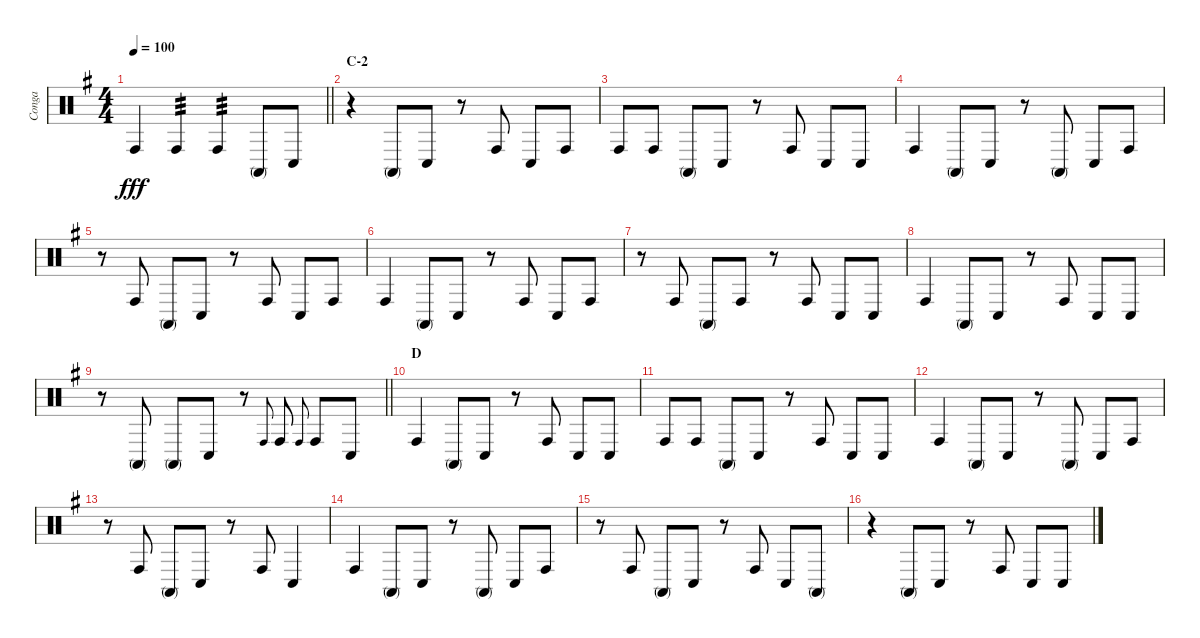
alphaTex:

\track ("Conga" "Conga") {instrument percussion}
\staff {score}
\articulation defaults
\ts (4 4)
\tempo 100
\clef neutral
\barLineRight lightlight
\ks g "Conga high (hit)".4{dy fff} "Conga high (hit)".4{tp 3} "Conga high (hit)".4{tp 3} "Conga high (mute)".8 "Conga low (hit)".8
|
\section ("" "C-2")
r.4 "Conga high (mute)".8 "Conga low (hit)".8 r.8 "Conga high (hit)".8 "Conga low (hit)".8 "Conga high (hit)".8 |
"Conga high (hit)".8 "Conga high (hit)".8 "Conga high (mute)".8 "Conga low (hit)".8 r.8 "Conga high (hit)".8 "Conga low (hit)".8 "Conga low (hit)".8 |
"Conga high (hit)".4 "Conga high (mute)".8 "Conga low (hit)".8 r.8 "Conga high (mute)".8 "Conga low (hit)".8 "Conga high (hit)".8 |
r.8 "Conga high (hit)".8 "Conga high (mute)".8 "Conga low (hit)".8 r.8 "Conga high (hit)".8 "Conga low (hit)".8 "Conga high (hit)".8 |
"Conga high (hit)".4 "Conga high (mute)".8 "Conga low (hit)".8 r.8 "Conga high (hit)".8 "Conga low (hit)".8 "Conga high (hit)".8 |
r.8 "Conga high (hit)".8 "Conga high (mute)".8 "Conga high (hit)".8 r.8 "Conga high (hit)".8 "Conga low (hit)".8 "Conga low (hit)".8 |
"Conga high (hit)".4 "Conga high (mute)".8 "Conga low (hit)".8 r.8 "Conga high (hit)".8 "Conga low (hit)".8 "Conga low (hit)".8 |
\barLineRight lightlight
r.8 "Conga high (mute)".8 "Conga high (mute)".8 "Conga low (hit)".8 r.8 "Conga high (hit)".8{gr onbeat} "Conga high (hit)".8 "Conga high (hit)".8{gr onbeat} "Conga high (hit)".8 "Conga low (hit)".8 |
\section ("" "D")
"Conga high (hit)".4 "Conga high (mute)".8 "Conga low (hit)".8 r.8 "Conga high (hit)".8 "Conga low (hit)".8 "Conga low (hit)".8 |
"Conga high (hit)".8 "Conga high (hit)".8 "Conga high (mute)".8 "Conga low (hit)".8 r.8 "Conga high (hit)".8 "Conga low (hit)".8 "Conga low (hit)".8 |
"Conga high (hit)".4 "Conga high (mute)".8 "Conga low (hit)".8 r.8 "Conga high (mute)".8 "Conga low (hit)".8 "Conga high (hit)".8 |
r.8 "Conga high (hit)".8 "Conga high (mute)".8 "Conga low (hit)".8 r.8 "Conga high (hit)".8 "Conga low (hit)".4 |
"Conga high (hit)".4 "Conga high (mute)".8 "Conga low (hit)".8 r.8 "Conga high (mute)".8 "Conga low (hit)".8 "Conga high (hit)".8 |
r.8 "Conga high (hit)".8 "Conga high (mute)".8 "Conga low (hit)".8 r.8 "Conga high (hit)".8 "Conga low (hit)".8 "Conga high (mute)".8 |
r.4 "Conga high (mute)".8 "Conga low (hit)".8 r.8 "Conga high (hit)".8 "Conga low (hit)".8 "Conga low (hit)".8
